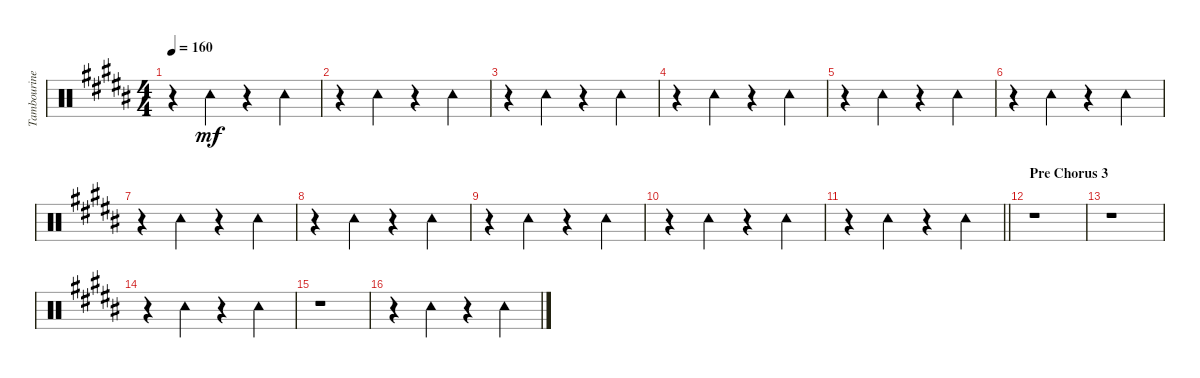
\track ("Tambourine" "Tambourine") {instrument percussion}
\staff {score}
\articulation defaults
\ts (4 4)
\tempo 160
\clef neutral
\ks b
r.4{dy mf} "Tambourine (hit)".4 r.4 "Tambourine (hit)".4 |
r.4 "Tambourine (hit)".4 r.4 "Tambourine (hit)".4 |
r.4 "Tambourine (hit)".4 r.4 "Tambourine (hit)".4 |
r.4 "Tambourine (hit)".4 r.4 "Tambourine (hit)".4 |
r.4 "Tambourine (hit)".4 r.4 "Tambourine (hit)".4 |
r.4 "Tambourine (hit)".4 r.4 "Tambourine (hit)".4 |
r.4 "Tambourine (hit)".4 r.4 "Tambourine (hit)".4 |
r.4 "Tambourine (hit)".4 r.4 "Tambourine (hit)".4 |
r.4 "Tambourine (hit)".4 r.4 "Tambourine (hit)".4 |
r.4 "Tambourine (hit)".4 r.4 "Tambourine (hit)".4 |
\barLineRight lightlight
r.4 "Tambourine (hit)".4 r.4 "Tambourine (hit)".4 |
\section ("" "Pre Chorus 3")
r.1 |
r.1 |
r.4 "Tambourine (hit)".4 r.4 "Tambourine (hit)".4 |
r.1 |
r.4 "Tambourine (hit)".4 r.4 "Tambourine (hit)".4
